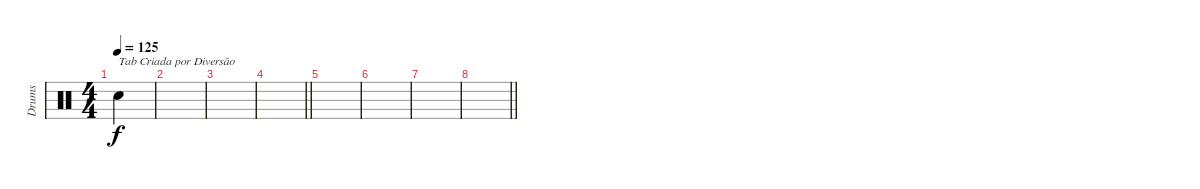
\track ("Drums" "Drums") {instrument percussion}
\staff {score}
\articulation defaults
\ts (4 4)
\tempo 125
\clef neutral
\ks c "Snare (hit)".4{txt "Tab Criada por Diversão" dy f}
|
|
|
\barLineRight lightlight
|
|
|
|
\barLineRight lightlight
